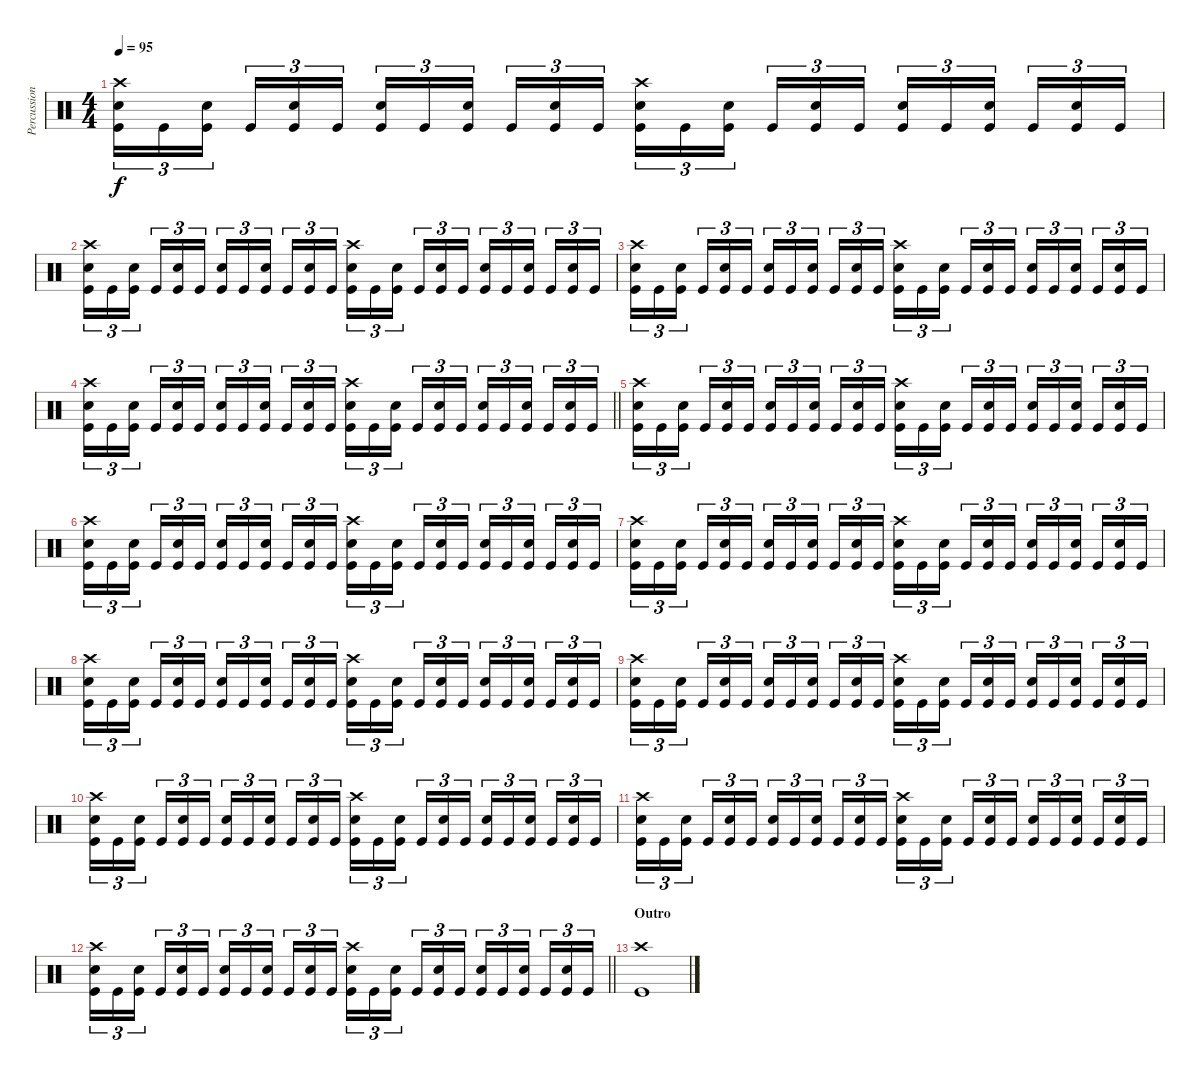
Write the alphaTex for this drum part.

\track ("Percussion" "Percussion") {instrument percussion}
\staff {score}
\articulation defaults
\ts (4 4)
\tempo 95
\clef neutral
\ks c
("Crash high (hit)" "Snare (hit) 2" "Kick (hit)").16{tu (3 2) dy f} "Kick (hit)".16{tu (3 2)} ("Snare (hit) 2" "Kick (hit)").16{tu (3 2) beam splitsecondary} "Kick (hit)".16{tu (3 2)} ("Snare (hit) 2" "Kick (hit)").16{tu (3 2)} "Kick (hit)".16{tu (3 2)} ("Snare (hit) 2" "Kick (hit)").16{tu (3 2)} "Kick (hit)".16{tu (3 2)} ("Snare (hit) 2" "Kick (hit)").16{tu (3 2) beam splitsecondary} "Kick (hit)".16{tu (3 2)} ("Snare (hit) 2" "Kick (hit)").16{tu (3 2)} "Kick (hit)".16{tu (3 2)} ("Crash high (hit)" "Snare (hit) 2" "Kick (hit)").16{tu (3 2)} "Kick (hit)".16{tu (3 2)} ("Snare (hit) 2" "Kick (hit)").16{tu (3 2) beam splitsecondary} "Kick (hit)".16{tu (3 2)} ("Snare (hit) 2" "Kick (hit)").16{tu (3 2)} "Kick (hit)".16{tu (3 2)} ("Snare (hit) 2" "Kick (hit)").16{tu (3 2)} "Kick (hit)".16{tu (3 2)} ("Snare (hit) 2" "Kick (hit)").16{tu (3 2) beam splitsecondary} "Kick (hit)".16{tu (3 2)} ("Snare (hit) 2" "Kick (hit)").16{tu (3 2)} "Kick (hit)".16{tu (3 2)} |
("Crash high (hit)" "Snare (hit) 2" "Kick (hit)").16{tu (3 2)} "Kick (hit)".16{tu (3 2)} ("Snare (hit) 2" "Kick (hit)").16{tu (3 2) beam splitsecondary} "Kick (hit)".16{tu (3 2)} ("Snare (hit) 2" "Kick (hit)").16{tu (3 2)} "Kick (hit)".16{tu (3 2)} ("Snare (hit) 2" "Kick (hit)").16{tu (3 2)} "Kick (hit)".16{tu (3 2)} ("Snare (hit) 2" "Kick (hit)").16{tu (3 2) beam splitsecondary} "Kick (hit)".16{tu (3 2)} ("Snare (hit) 2" "Kick (hit)").16{tu (3 2)} "Kick (hit)".16{tu (3 2)} ("Crash high (hit)" "Snare (hit) 2" "Kick (hit)").16{tu (3 2)} "Kick (hit)".16{tu (3 2)} ("Snare (hit) 2" "Kick (hit)").16{tu (3 2) beam splitsecondary} "Kick (hit)".16{tu (3 2)} ("Snare (hit) 2" "Kick (hit)").16{tu (3 2)} "Kick (hit)".16{tu (3 2)} ("Snare (hit) 2" "Kick (hit)").16{tu (3 2)} "Kick (hit)".16{tu (3 2)} ("Snare (hit) 2" "Kick (hit)").16{tu (3 2) beam splitsecondary} "Kick (hit)".16{tu (3 2)} ("Snare (hit) 2" "Kick (hit)").16{tu (3 2)} "Kick (hit)".16{tu (3 2)} |
("Crash high (hit)" "Snare (hit) 2" "Kick (hit)").16{tu (3 2)} "Kick (hit)".16{tu (3 2)} ("Snare (hit) 2" "Kick (hit)").16{tu (3 2) beam splitsecondary} "Kick (hit)".16{tu (3 2)} ("Snare (hit) 2" "Kick (hit)").16{tu (3 2)} "Kick (hit)".16{tu (3 2)} ("Snare (hit) 2" "Kick (hit)").16{tu (3 2)} "Kick (hit)".16{tu (3 2)} ("Snare (hit) 2" "Kick (hit)").16{tu (3 2) beam splitsecondary} "Kick (hit)".16{tu (3 2)} ("Snare (hit) 2" "Kick (hit)").16{tu (3 2)} "Kick (hit)".16{tu (3 2)} ("Crash high (hit)" "Snare (hit) 2" "Kick (hit)").16{tu (3 2)} "Kick (hit)".16{tu (3 2)} ("Snare (hit) 2" "Kick (hit)").16{tu (3 2) beam splitsecondary} "Kick (hit)".16{tu (3 2)} ("Snare (hit) 2" "Kick (hit)").16{tu (3 2)} "Kick (hit)".16{tu (3 2)} ("Snare (hit) 2" "Kick (hit)").16{tu (3 2)} "Kick (hit)".16{tu (3 2)} ("Snare (hit) 2" "Kick (hit)").16{tu (3 2) beam splitsecondary} "Kick (hit)".16{tu (3 2)} ("Snare (hit) 2" "Kick (hit)").16{tu (3 2)} "Kick (hit)".16{tu (3 2)} |
\barLineRight lightlight
("Crash high (hit)" "Snare (hit) 2" "Kick (hit)").16{tu (3 2)} "Kick (hit)".16{tu (3 2)} ("Snare (hit) 2" "Kick (hit)").16{tu (3 2) beam splitsecondary} "Kick (hit)".16{tu (3 2)} ("Snare (hit) 2" "Kick (hit)").16{tu (3 2)} "Kick (hit)".16{tu (3 2)} ("Snare (hit) 2" "Kick (hit)").16{tu (3 2)} "Kick (hit)".16{tu (3 2)} ("Snare (hit) 2" "Kick (hit)").16{tu (3 2) beam splitsecondary} "Kick (hit)".16{tu (3 2)} ("Snare (hit) 2" "Kick (hit)").16{tu (3 2)} "Kick (hit)".16{tu (3 2)} ("Crash high (hit)" "Snare (hit) 2" "Kick (hit)").16{tu (3 2)} "Kick (hit)".16{tu (3 2)} ("Snare (hit) 2" "Kick (hit)").16{tu (3 2) beam splitsecondary} "Kick (hit)".16{tu (3 2)} ("Snare (hit) 2" "Kick (hit)").16{tu (3 2)} "Kick (hit)".16{tu (3 2)} ("Snare (hit) 2" "Kick (hit)").16{tu (3 2)} "Kick (hit)".16{tu (3 2)} ("Snare (hit) 2" "Kick (hit)").16{tu (3 2) beam splitsecondary} "Kick (hit)".16{tu (3 2)} ("Snare (hit) 2" "Kick (hit)").16{tu (3 2)} "Kick (hit)".16{tu (3 2)} |
("Crash high (hit)" "Snare (hit) 2" "Kick (hit)").16{tu (3 2)} "Kick (hit)".16{tu (3 2)} ("Snare (hit) 2" "Kick (hit)").16{tu (3 2) beam splitsecondary} "Kick (hit)".16{tu (3 2)} ("Snare (hit) 2" "Kick (hit)").16{tu (3 2)} "Kick (hit)".16{tu (3 2)} ("Snare (hit) 2" "Kick (hit)").16{tu (3 2)} "Kick (hit)".16{tu (3 2)} ("Snare (hit) 2" "Kick (hit)").16{tu (3 2) beam splitsecondary} "Kick (hit)".16{tu (3 2)} ("Snare (hit) 2" "Kick (hit)").16{tu (3 2)} "Kick (hit)".16{tu (3 2)} ("Crash high (hit)" "Snare (hit) 2" "Kick (hit)").16{tu (3 2)} "Kick (hit)".16{tu (3 2)} ("Snare (hit) 2" "Kick (hit)").16{tu (3 2) beam splitsecondary} "Kick (hit)".16{tu (3 2)} ("Snare (hit) 2" "Kick (hit)").16{tu (3 2)} "Kick (hit)".16{tu (3 2)} ("Snare (hit) 2" "Kick (hit)").16{tu (3 2)} "Kick (hit)".16{tu (3 2)} ("Snare (hit) 2" "Kick (hit)").16{tu (3 2) beam splitsecondary} "Kick (hit)".16{tu (3 2)} ("Snare (hit) 2" "Kick (hit)").16{tu (3 2)} "Kick (hit)".16{tu (3 2)} |
("Crash high (hit)" "Snare (hit) 2" "Kick (hit)").16{tu (3 2)} "Kick (hit)".16{tu (3 2)} ("Snare (hit) 2" "Kick (hit)").16{tu (3 2) beam splitsecondary} "Kick (hit)".16{tu (3 2)} ("Snare (hit) 2" "Kick (hit)").16{tu (3 2)} "Kick (hit)".16{tu (3 2)} ("Snare (hit) 2" "Kick (hit)").16{tu (3 2)} "Kick (hit)".16{tu (3 2)} ("Snare (hit) 2" "Kick (hit)").16{tu (3 2) beam splitsecondary} "Kick (hit)".16{tu (3 2)} ("Snare (hit) 2" "Kick (hit)").16{tu (3 2)} "Kick (hit)".16{tu (3 2)} ("Crash high (hit)" "Snare (hit) 2" "Kick (hit)").16{tu (3 2)} "Kick (hit)".16{tu (3 2)} ("Snare (hit) 2" "Kick (hit)").16{tu (3 2) beam splitsecondary} "Kick (hit)".16{tu (3 2)} ("Snare (hit) 2" "Kick (hit)").16{tu (3 2)} "Kick (hit)".16{tu (3 2)} ("Snare (hit) 2" "Kick (hit)").16{tu (3 2)} "Kick (hit)".16{tu (3 2)} ("Snare (hit) 2" "Kick (hit)").16{tu (3 2) beam splitsecondary} "Kick (hit)".16{tu (3 2)} ("Snare (hit) 2" "Kick (hit)").16{tu (3 2)} "Kick (hit)".16{tu (3 2)} |
("Crash high (hit)" "Snare (hit) 2" "Kick (hit)").16{tu (3 2)} "Kick (hit)".16{tu (3 2)} ("Snare (hit) 2" "Kick (hit)").16{tu (3 2) beam splitsecondary} "Kick (hit)".16{tu (3 2)} ("Snare (hit) 2" "Kick (hit)").16{tu (3 2)} "Kick (hit)".16{tu (3 2)} ("Snare (hit) 2" "Kick (hit)").16{tu (3 2)} "Kick (hit)".16{tu (3 2)} ("Snare (hit) 2" "Kick (hit)").16{tu (3 2) beam splitsecondary} "Kick (hit)".16{tu (3 2)} ("Snare (hit) 2" "Kick (hit)").16{tu (3 2)} "Kick (hit)".16{tu (3 2)} ("Crash high (hit)" "Snare (hit) 2" "Kick (hit)").16{tu (3 2)} "Kick (hit)".16{tu (3 2)} ("Snare (hit) 2" "Kick (hit)").16{tu (3 2) beam splitsecondary} "Kick (hit)".16{tu (3 2)} ("Snare (hit) 2" "Kick (hit)").16{tu (3 2)} "Kick (hit)".16{tu (3 2)} ("Snare (hit) 2" "Kick (hit)").16{tu (3 2)} "Kick (hit)".16{tu (3 2)} ("Snare (hit) 2" "Kick (hit)").16{tu (3 2) beam splitsecondary} "Kick (hit)".16{tu (3 2)} ("Snare (hit) 2" "Kick (hit)").16{tu (3 2)} "Kick (hit)".16{tu (3 2)} |
("Crash high (hit)" "Snare (hit) 2" "Kick (hit)").16{tu (3 2)} "Kick (hit)".16{tu (3 2)} ("Snare (hit) 2" "Kick (hit)").16{tu (3 2) beam splitsecondary} "Kick (hit)".16{tu (3 2)} ("Snare (hit) 2" "Kick (hit)").16{tu (3 2)} "Kick (hit)".16{tu (3 2)} ("Snare (hit) 2" "Kick (hit)").16{tu (3 2)} "Kick (hit)".16{tu (3 2)} ("Snare (hit) 2" "Kick (hit)").16{tu (3 2) beam splitsecondary} "Kick (hit)".16{tu (3 2)} ("Snare (hit) 2" "Kick (hit)").16{tu (3 2)} "Kick (hit)".16{tu (3 2)} ("Crash high (hit)" "Snare (hit) 2" "Kick (hit)").16{tu (3 2)} "Kick (hit)".16{tu (3 2)} ("Snare (hit) 2" "Kick (hit)").16{tu (3 2) beam splitsecondary} "Kick (hit)".16{tu (3 2)} ("Snare (hit) 2" "Kick (hit)").16{tu (3 2)} "Kick (hit)".16{tu (3 2)} ("Snare (hit) 2" "Kick (hit)").16{tu (3 2)} "Kick (hit)".16{tu (3 2)} ("Snare (hit) 2" "Kick (hit)").16{tu (3 2) beam splitsecondary} "Kick (hit)".16{tu (3 2)} ("Snare (hit) 2" "Kick (hit)").16{tu (3 2)} "Kick (hit)".16{tu (3 2)} |
("Crash high (hit)" "Snare (hit) 2" "Kick (hit)").16{tu (3 2)} "Kick (hit)".16{tu (3 2)} ("Snare (hit) 2" "Kick (hit)").16{tu (3 2) beam splitsecondary} "Kick (hit)".16{tu (3 2)} ("Snare (hit) 2" "Kick (hit)").16{tu (3 2)} "Kick (hit)".16{tu (3 2)} ("Snare (hit) 2" "Kick (hit)").16{tu (3 2)} "Kick (hit)".16{tu (3 2)} ("Snare (hit) 2" "Kick (hit)").16{tu (3 2) beam splitsecondary} "Kick (hit)".16{tu (3 2)} ("Snare (hit) 2" "Kick (hit)").16{tu (3 2)} "Kick (hit)".16{tu (3 2)} ("Crash high (hit)" "Snare (hit) 2" "Kick (hit)").16{tu (3 2)} "Kick (hit)".16{tu (3 2)} ("Snare (hit) 2" "Kick (hit)").16{tu (3 2) beam splitsecondary} "Kick (hit)".16{tu (3 2)} ("Snare (hit) 2" "Kick (hit)").16{tu (3 2)} "Kick (hit)".16{tu (3 2)} ("Snare (hit) 2" "Kick (hit)").16{tu (3 2)} "Kick (hit)".16{tu (3 2)} ("Snare (hit) 2" "Kick (hit)").16{tu (3 2) beam splitsecondary} "Kick (hit)".16{tu (3 2)} ("Snare (hit) 2" "Kick (hit)").16{tu (3 2)} "Kick (hit)".16{tu (3 2)} |
("Crash high (hit)" "Snare (hit) 2" "Kick (hit)").16{tu (3 2)} "Kick (hit)".16{tu (3 2)} ("Snare (hit) 2" "Kick (hit)").16{tu (3 2) beam splitsecondary} "Kick (hit)".16{tu (3 2)} ("Snare (hit) 2" "Kick (hit)").16{tu (3 2)} "Kick (hit)".16{tu (3 2)} ("Snare (hit) 2" "Kick (hit)").16{tu (3 2)} "Kick (hit)".16{tu (3 2)} ("Snare (hit) 2" "Kick (hit)").16{tu (3 2) beam splitsecondary} "Kick (hit)".16{tu (3 2)} ("Snare (hit) 2" "Kick (hit)").16{tu (3 2)} "Kick (hit)".16{tu (3 2)} ("Crash high (hit)" "Snare (hit) 2" "Kick (hit)").16{tu (3 2)} "Kick (hit)".16{tu (3 2)} ("Snare (hit) 2" "Kick (hit)").16{tu (3 2) beam splitsecondary} "Kick (hit)".16{tu (3 2)} ("Snare (hit) 2" "Kick (hit)").16{tu (3 2)} "Kick (hit)".16{tu (3 2)} ("Snare (hit) 2" "Kick (hit)").16{tu (3 2)} "Kick (hit)".16{tu (3 2)} ("Snare (hit) 2" "Kick (hit)").16{tu (3 2) beam splitsecondary} "Kick (hit)".16{tu (3 2)} ("Snare (hit) 2" "Kick (hit)").16{tu (3 2)} "Kick (hit)".16{tu (3 2)} |
("Crash high (hit)" "Snare (hit) 2" "Kick (hit)").16{tu (3 2)} "Kick (hit)".16{tu (3 2)} ("Snare (hit) 2" "Kick (hit)").16{tu (3 2) beam splitsecondary} "Kick (hit)".16{tu (3 2)} ("Snare (hit) 2" "Kick (hit)").16{tu (3 2)} "Kick (hit)".16{tu (3 2)} ("Snare (hit) 2" "Kick (hit)").16{tu (3 2)} "Kick (hit)".16{tu (3 2)} ("Snare (hit) 2" "Kick (hit)").16{tu (3 2) beam splitsecondary} "Kick (hit)".16{tu (3 2)} ("Snare (hit) 2" "Kick (hit)").16{tu (3 2)} "Kick (hit)".16{tu (3 2)} ("Crash high (hit)" "Snare (hit) 2" "Kick (hit)").16{tu (3 2)} "Kick (hit)".16{tu (3 2)} ("Snare (hit) 2" "Kick (hit)").16{tu (3 2) beam splitsecondary} "Kick (hit)".16{tu (3 2)} ("Snare (hit) 2" "Kick (hit)").16{tu (3 2)} "Kick (hit)".16{tu (3 2)} ("Snare (hit) 2" "Kick (hit)").16{tu (3 2)} "Kick (hit)".16{tu (3 2)} ("Snare (hit) 2" "Kick (hit)").16{tu (3 2) beam splitsecondary} "Kick (hit)".16{tu (3 2)} ("Snare (hit) 2" "Kick (hit)").16{tu (3 2)} "Kick (hit)".16{tu (3 2)} |
\barLineRight lightlight
("Crash high (hit)" "Snare (hit) 2" "Kick (hit)").16{tu (3 2)} "Kick (hit)".16{tu (3 2)} ("Snare (hit) 2" "Kick (hit)").16{tu (3 2) beam splitsecondary} "Kick (hit)".16{tu (3 2)} ("Snare (hit) 2" "Kick (hit)").16{tu (3 2)} "Kick (hit)".16{tu (3 2)} ("Snare (hit) 2" "Kick (hit)").16{tu (3 2)} "Kick (hit)".16{tu (3 2)} ("Snare (hit) 2" "Kick (hit)").16{tu (3 2) beam splitsecondary} "Kick (hit)".16{tu (3 2)} ("Snare (hit) 2" "Kick (hit)").16{tu (3 2)} "Kick (hit)".16{tu (3 2)} ("Crash high (hit)" "Snare (hit) 2" "Kick (hit)").16{tu (3 2)} "Kick (hit)".16{tu (3 2)} ("Snare (hit) 2" "Kick (hit)").16{tu (3 2) beam splitsecondary} "Kick (hit)".16{tu (3 2)} ("Snare (hit) 2" "Kick (hit)").16{tu (3 2)} "Kick (hit)".16{tu (3 2)} ("Snare (hit) 2" "Kick (hit)").16{tu (3 2)} "Kick (hit)".16{tu (3 2)} ("Snare (hit) 2" "Kick (hit)").16{tu (3 2) beam splitsecondary} "Kick (hit)".16{tu (3 2)} ("Snare (hit) 2" "Kick (hit)").16{tu (3 2)} "Kick (hit)".16{tu (3 2)} |
\section ("" "Outro")
("Crash high (hit)" "Kick (hit)").1
